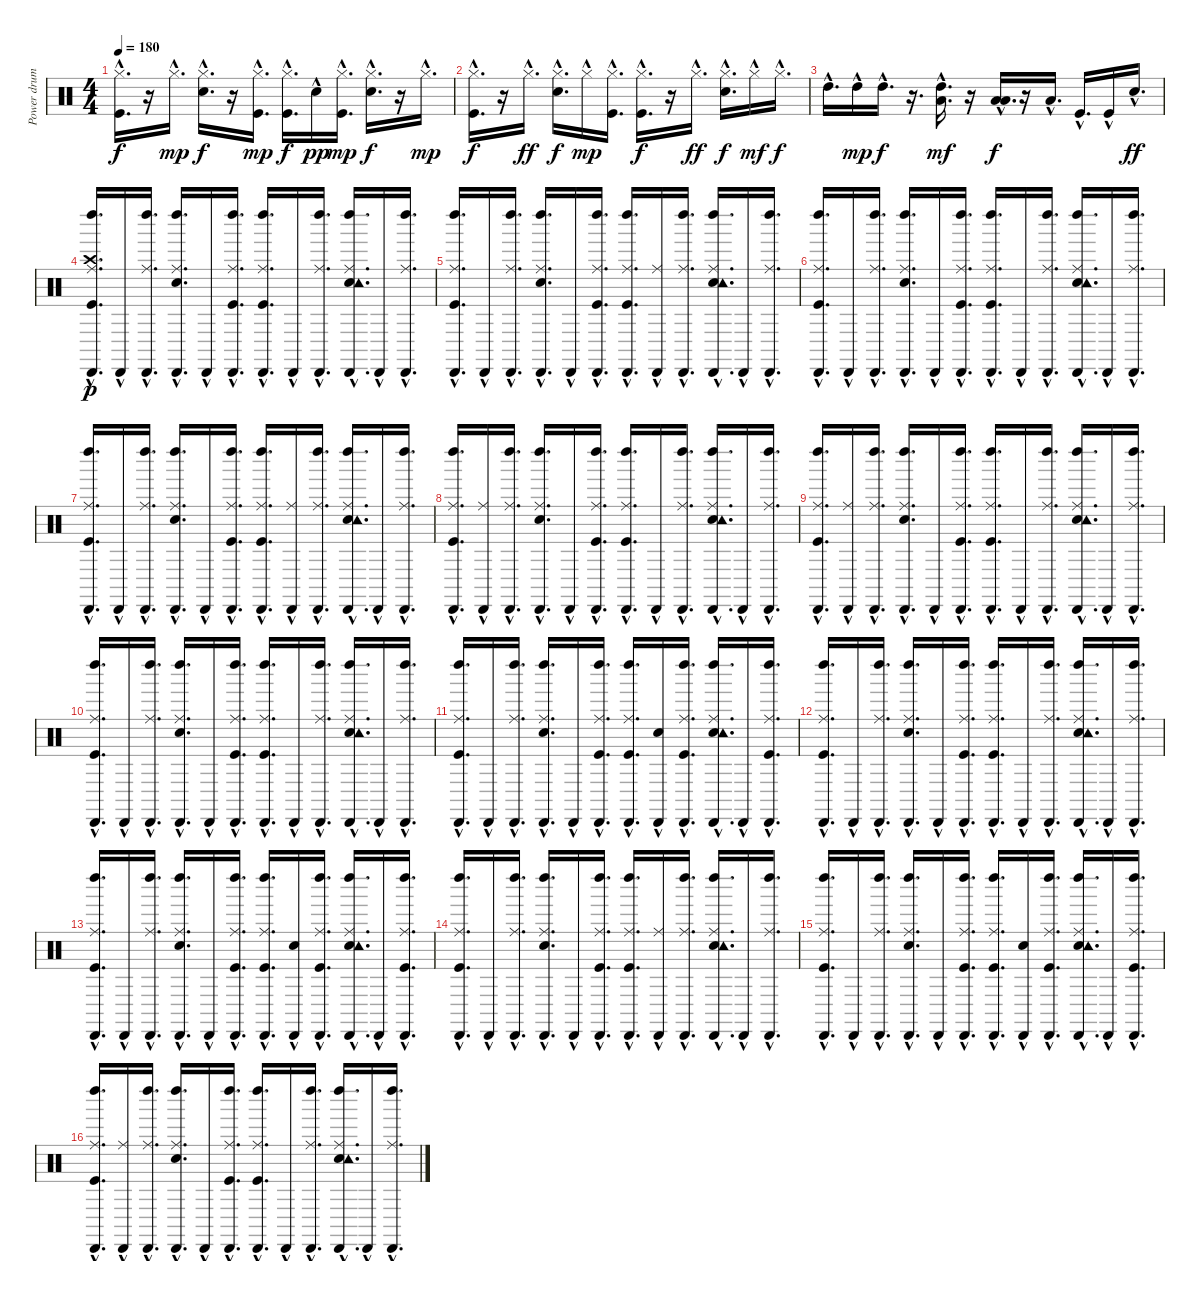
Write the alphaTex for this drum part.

\track ("Power drum" "Power drum") {instrument percussion}
\staff {score}
\articulation defaults
\ts (4 4)
\tempo 180
\clef neutral
\ks c
("Kick (hit)"{hac} "Hi-Hat (closed)"{hac}).16{d dy f} r.16 "Hi-Hat (closed)"{hac}.16{d dy mp} ("Snare (hit) 2"{hac} "Hi-Hat (closed)"{hac}).16{d dy f} r.16 ("Kick (hit)"{hac} "Hi-Hat (closed)"{hac}).16{d dy mp} ("Kick (hit)"{hac} "Hi-Hat (closed)"{hac}).16{d dy f} "Snare (hit) 2"{hac}.16{dy pp} ("Kick (hit)"{hac} "Hi-Hat (closed)"{hac}).16{d dy mp} ("Snare (hit) 2"{hac} "Hi-Hat (closed)"{hac}).16{d dy f} r.16 "Hi-Hat (closed)"{hac}.16{d dy mp} |
("Kick (hit)"{hac} "Hi-Hat (closed)"{hac}).16{d dy f} r.16 "Hi-Hat (closed)"{hac}.16{d dy ff} ("Snare (hit) 2"{hac} "Hi-Hat (closed)"{hac}).16{d dy f} "Hi-Hat (closed)"{hac}.16{dy mp} ("Kick (hit)"{hac} "Hi-Hat (closed)"{hac}).16{d} ("Kick (hit)"{hac} "Hi-Hat (closed)"{hac}).16{d dy f} r.16 "Hi-Hat (closed)"{hac}.16{d dy ff} ("Snare (hit) 2"{hac} "Hi-Hat (closed)"{hac}).16{d dy f} "Hi-Hat (closed)"{hac}.16{dy mf} "Hi-Hat (closed)"{hac}.16{d dy f} |
"High Tom (hit)"{hac}.16{d} "High Tom (hit)"{hac}.16{dy mp} "High Tom (hit)"{hac}.16{d dy f} r.16{d} ("Low Tom (hit)"{hac} "High Tom (hit)"{hac}).16{d dy mf} r.16 ("Low Floor Tom (hit)"{hac} "Low Tom (hit)"{hac}).16{d dy f} r.16 "Low Floor Tom (hit)"{hac}.16{d} "Kick (hit)"{hac}.16{d} "Kick (hit)"{hac}.16 "Snare (hit) 2"{hac}.16{d dy ff} |
("Kick (hit)"{hac} "Ride (middle)"{hac} "Crash high (hit)"{hac} "Left Maraca (hit)"{hac} "Cabasa (hit)"{hac}).16{d dy p} "Cabasa (hit)"{hac}.16 ("Ride (middle)"{hac} "Left Maraca (hit)"{hac} "Cabasa (hit)"{hac}).16{d} ("Snare (hit) 2"{hac} "Ride (middle)"{hac} "Left Maraca (hit)"{hac} "Cabasa (hit)"{hac}).16{d} "Cabasa (hit)"{hac}.16 ("Kick (hit)"{hac} "Ride (middle)"{hac} "Left Maraca (hit)"{hac} "Cabasa (hit)"{hac}).16{d} ("Kick (hit)"{hac} "Ride (middle)"{hac} "Left Maraca (hit)"{hac} "Cabasa (hit)"{hac}).16{d} "Cabasa (hit)"{hac}.16 ("Ride (middle)"{hac} "Left Maraca (hit)"{hac} "Cabasa (hit)"{hac}).16{d} ("Snare (hit) 2"{hac} "Ride (middle)"{hac} "Tambourine (hit)"{hac} "Left Maraca (hit)"{hac} "Cabasa (hit)"{hac}).16{d} "Cabasa (hit)"{hac}.16 ("Ride (middle)"{hac} "Left Maraca (hit)"{hac} "Cabasa (hit)"{hac}).16{d} |
("Kick (hit)"{hac} "Ride (middle)"{hac} "Left Maraca (hit)"{hac} "Cabasa (hit)"{hac}).16{d} "Cabasa (hit)"{hac}.16 ("Ride (middle)"{hac} "Left Maraca (hit)"{hac} "Cabasa (hit)"{hac}).16{d} ("Snare (hit) 2"{hac} "Ride (middle)"{hac} "Left Maraca (hit)"{hac} "Cabasa (hit)"{hac}).16{d} "Cabasa (hit)"{hac}.16 ("Kick (hit)"{hac} "Ride (middle)"{hac} "Left Maraca (hit)"{hac} "Cabasa (hit)"{hac}).16{d} ("Kick (hit)"{hac} "Ride (middle)"{hac} "Left Maraca (hit)"{hac} "Cabasa (hit)"{hac}).16{d} ("Ride (middle)"{hac} "Cabasa (hit)"{hac}).16 ("Ride (middle)"{hac} "Left Maraca (hit)"{hac} "Cabasa (hit)"{hac}).16{d} ("Snare (hit) 2"{hac} "Ride (middle)"{hac} "Tambourine (hit)"{hac} "Left Maraca (hit)"{hac} "Cabasa (hit)"{hac}).16{d} "Cabasa (hit)"{hac}.16 ("Ride (middle)"{hac} "Left Maraca (hit)"{hac} "Cabasa (hit)"{hac}).16{d} |
("Kick (hit)"{hac} "Ride (middle)"{hac} "Left Maraca (hit)"{hac} "Cabasa (hit)"{hac}).16{d} "Cabasa (hit)"{hac}.16 ("Ride (middle)"{hac} "Left Maraca (hit)"{hac} "Cabasa (hit)"{hac}).16{d} ("Snare (hit) 2"{hac} "Ride (middle)"{hac} "Left Maraca (hit)"{hac} "Cabasa (hit)"{hac}).16{d} "Cabasa (hit)"{hac}.16 ("Kick (hit)"{hac} "Ride (middle)"{hac} "Left Maraca (hit)"{hac} "Cabasa (hit)"{hac}).16{d} ("Kick (hit)"{hac} "Ride (middle)"{hac} "Left Maraca (hit)"{hac} "Cabasa (hit)"{hac}).16{d} "Cabasa (hit)"{hac}.16 ("Ride (middle)"{hac} "Left Maraca (hit)"{hac} "Cabasa (hit)"{hac}).16{d} ("Snare (hit) 2"{hac} "Ride (middle)"{hac} "Tambourine (hit)"{hac} "Left Maraca (hit)"{hac} "Cabasa (hit)"{hac}).16{d} "Cabasa (hit)"{hac}.16 ("Ride (middle)"{hac} "Left Maraca (hit)"{hac} "Cabasa (hit)"{hac}).16{d} |
("Kick (hit)"{hac} "Ride (middle)"{hac} "Left Maraca (hit)"{hac} "Cabasa (hit)"{hac}).16{d} "Cabasa (hit)"{hac}.16 ("Ride (middle)"{hac} "Left Maraca (hit)"{hac} "Cabasa (hit)"{hac}).16{d} ("Snare (hit) 2"{hac} "Ride (middle)"{hac} "Left Maraca (hit)"{hac} "Cabasa (hit)"{hac}).16{d} "Cabasa (hit)"{hac}.16 ("Kick (hit)"{hac} "Ride (middle)"{hac} "Left Maraca (hit)"{hac} "Cabasa (hit)"{hac}).16{d} ("Kick (hit)"{hac} "Ride (middle)"{hac} "Left Maraca (hit)"{hac} "Cabasa (hit)"{hac}).16{d} ("Ride (middle)"{hac} "Cabasa (hit)"{hac}).16 ("Ride (middle)"{hac} "Left Maraca (hit)"{hac} "Cabasa (hit)"{hac}).16{d} ("Snare (hit) 2"{hac} "Ride (middle)"{hac} "Tambourine (hit)"{hac} "Left Maraca (hit)"{hac} "Cabasa (hit)"{hac}).16{d} "Cabasa (hit)"{hac}.16 ("Ride (middle)"{hac} "Left Maraca (hit)"{hac} "Cabasa (hit)"{hac}).16{d} |
("Kick (hit)"{hac} "Ride (middle)"{hac} "Left Maraca (hit)"{hac} "Cabasa (hit)"{hac}).16{d} ("Ride (middle)"{hac} "Cabasa (hit)"{hac}).16 ("Ride (middle)"{hac} "Left Maraca (hit)"{hac} "Cabasa (hit)"{hac}).16{d} ("Snare (hit) 2"{hac} "Ride (middle)"{hac} "Left Maraca (hit)"{hac} "Cabasa (hit)"{hac}).16{d} "Cabasa (hit)"{hac}.16 ("Kick (hit)"{hac} "Ride (middle)"{hac} "Left Maraca (hit)"{hac} "Cabasa (hit)"{hac}).16{d} ("Kick (hit)"{hac} "Ride (middle)"{hac} "Left Maraca (hit)"{hac} "Cabasa (hit)"{hac}).16{d} "Cabasa (hit)"{hac}.16 ("Ride (middle)"{hac} "Left Maraca (hit)"{hac} "Cabasa (hit)"{hac}).16{d} ("Snare (hit) 2"{hac} "Ride (middle)"{hac} "Tambourine (hit)"{hac} "Left Maraca (hit)"{hac} "Cabasa (hit)"{hac}).16{d} "Cabasa (hit)"{hac}.16 ("Ride (middle)"{hac} "Left Maraca (hit)"{hac} "Cabasa (hit)"{hac}).16{d} |
("Kick (hit)"{hac} "Ride (middle)"{hac} "Left Maraca (hit)"{hac} "Cabasa (hit)"{hac}).16{d} ("Ride (middle)"{hac} "Cabasa (hit)"{hac}).16 ("Ride (middle)"{hac} "Left Maraca (hit)"{hac} "Cabasa (hit)"{hac}).16{d} ("Snare (hit) 2"{hac} "Ride (middle)"{hac} "Left Maraca (hit)"{hac} "Cabasa (hit)"{hac}).16{d} "Cabasa (hit)"{hac}.16 ("Kick (hit)"{hac} "Ride (middle)"{hac} "Left Maraca (hit)"{hac} "Cabasa (hit)"{hac}).16{d} ("Kick (hit)"{hac} "Ride (middle)"{hac} "Left Maraca (hit)"{hac} "Cabasa (hit)"{hac}).16{d} "Cabasa (hit)"{hac}.16 ("Ride (middle)"{hac} "Left Maraca (hit)"{hac} "Cabasa (hit)"{hac}).16{d} ("Snare (hit) 2"{hac} "Ride (middle)"{hac} "Tambourine (hit)"{hac} "Left Maraca (hit)"{hac} "Cabasa (hit)"{hac}).16{d} "Cabasa (hit)"{hac}.16 ("Ride (middle)"{hac} "Left Maraca (hit)"{hac} "Cabasa (hit)"{hac}).16{d} |
("Kick (hit)"{hac} "Ride (middle)"{hac} "Left Maraca (hit)"{hac} "Cabasa (hit)"{hac}).16{d} "Cabasa (hit)"{hac}.16 ("Ride (middle)"{hac} "Left Maraca (hit)"{hac} "Cabasa (hit)"{hac}).16{d} ("Snare (hit) 2"{hac} "Ride (middle)"{hac} "Left Maraca (hit)"{hac} "Cabasa (hit)"{hac}).16{d} "Cabasa (hit)"{hac}.16 ("Kick (hit)"{hac} "Ride (middle)"{hac} "Left Maraca (hit)"{hac} "Cabasa (hit)"{hac}).16{d} ("Kick (hit)"{hac} "Ride (middle)"{hac} "Left Maraca (hit)"{hac} "Cabasa (hit)"{hac}).16{d} "Cabasa (hit)"{hac}.16 ("Ride (middle)"{hac} "Left Maraca (hit)"{hac} "Cabasa (hit)"{hac}).16{d} ("Snare (hit) 2"{hac} "Ride (middle)"{hac} "Tambourine (hit)"{hac} "Left Maraca (hit)"{hac} "Cabasa (hit)"{hac}).16{d} "Cabasa (hit)"{hac}.16 ("Ride (middle)"{hac} "Left Maraca (hit)"{hac} "Cabasa (hit)"{hac}).16{d} |
("Kick (hit)"{hac} "Ride (middle)"{hac} "Left Maraca (hit)"{hac} "Cabasa (hit)"{hac}).16{d} "Cabasa (hit)"{hac}.16 ("Ride (middle)"{hac} "Left Maraca (hit)"{hac} "Cabasa (hit)"{hac}).16{d} ("Snare (hit) 2"{hac} "Ride (middle)"{hac} "Left Maraca (hit)"{hac} "Cabasa (hit)"{hac}).16{d} "Cabasa (hit)"{hac}.16 ("Kick (hit)"{hac} "Ride (middle)"{hac} "Left Maraca (hit)"{hac} "Cabasa (hit)"{hac}).16{d} ("Kick (hit)"{hac} "Ride (middle)"{hac} "Left Maraca (hit)"{hac} "Cabasa (hit)"{hac}).16{d} ("Snare (hit) 2"{hac} "Cabasa (hit)"{hac}).16 ("Kick (hit)"{hac} "Ride (middle)"{hac} "Left Maraca (hit)"{hac} "Cabasa (hit)"{hac}).16{d} ("Snare (hit) 2"{hac} "Ride (middle)"{hac} "Tambourine (hit)"{hac} "Left Maraca (hit)"{hac} "Cabasa (hit)"{hac}).16{d} "Cabasa (hit)"{hac}.16 ("Kick (hit)"{hac} "Ride (middle)"{hac} "Left Maraca (hit)"{hac} "Cabasa (hit)"{hac}).16{d} |
("Kick (hit)"{hac} "Ride (middle)"{hac} "Left Maraca (hit)"{hac} "Cabasa (hit)"{hac}).16{d} "Cabasa (hit)"{hac}.16 ("Ride (middle)"{hac} "Left Maraca (hit)"{hac} "Cabasa (hit)"{hac}).16{d} ("Snare (hit) 2"{hac} "Ride (middle)"{hac} "Left Maraca (hit)"{hac} "Cabasa (hit)"{hac}).16{d} "Cabasa (hit)"{hac}.16 ("Kick (hit)"{hac} "Ride (middle)"{hac} "Left Maraca (hit)"{hac} "Cabasa (hit)"{hac}).16{d} ("Kick (hit)"{hac} "Ride (middle)"{hac} "Left Maraca (hit)"{hac} "Cabasa (hit)"{hac}).16{d} "Cabasa (hit)"{hac}.16 ("Ride (middle)"{hac} "Left Maraca (hit)"{hac} "Cabasa (hit)"{hac}).16{d} ("Snare (hit) 2"{hac} "Ride (middle)"{hac} "Tambourine (hit)"{hac} "Left Maraca (hit)"{hac} "Cabasa (hit)"{hac}).16{d} "Cabasa (hit)"{hac}.16 ("Ride (middle)"{hac} "Left Maraca (hit)"{hac} "Cabasa (hit)"{hac}).16{d} |
("Kick (hit)"{hac} "Ride (middle)"{hac} "Left Maraca (hit)"{hac} "Cabasa (hit)"{hac}).16{d} "Cabasa (hit)"{hac}.16 ("Ride (middle)"{hac} "Left Maraca (hit)"{hac} "Cabasa (hit)"{hac}).16{d} ("Snare (hit) 2"{hac} "Ride (middle)"{hac} "Left Maraca (hit)"{hac} "Cabasa (hit)"{hac}).16{d} "Cabasa (hit)"{hac}.16 ("Kick (hit)"{hac} "Ride (middle)"{hac} "Left Maraca (hit)"{hac} "Cabasa (hit)"{hac}).16{d} ("Kick (hit)"{hac} "Ride (middle)"{hac} "Left Maraca (hit)"{hac} "Cabasa (hit)"{hac}).16{d} ("Snare (hit) 2"{hac} "Cabasa (hit)"{hac}).16 ("Kick (hit)"{hac} "Ride (middle)"{hac} "Left Maraca (hit)"{hac} "Cabasa (hit)"{hac}).16{d} ("Snare (hit) 2"{hac} "Ride (middle)"{hac} "Tambourine (hit)"{hac} "Left Maraca (hit)"{hac} "Cabasa (hit)"{hac}).16{d} "Cabasa (hit)"{hac}.16 ("Kick (hit)"{hac} "Ride (middle)"{hac} "Left Maraca (hit)"{hac} "Cabasa (hit)"{hac}).16{d} |
("Kick (hit)"{hac} "Ride (middle)"{hac} "Left Maraca (hit)"{hac} "Cabasa (hit)"{hac}).16{d} "Cabasa (hit)"{hac}.16 ("Ride (middle)"{hac} "Left Maraca (hit)"{hac} "Cabasa (hit)"{hac}).16{d} ("Snare (hit) 2"{hac} "Ride (middle)"{hac} "Left Maraca (hit)"{hac} "Cabasa (hit)"{hac}).16{d} "Cabasa (hit)"{hac}.16 ("Kick (hit)"{hac} "Ride (middle)"{hac} "Left Maraca (hit)"{hac} "Cabasa (hit)"{hac}).16{d} ("Kick (hit)"{hac} "Ride (middle)"{hac} "Left Maraca (hit)"{hac} "Cabasa (hit)"{hac}).16{d} ("Ride (middle)"{hac} "Cabasa (hit)"{hac}).16 ("Ride (middle)"{hac} "Left Maraca (hit)"{hac} "Cabasa (hit)"{hac}).16{d} ("Snare (hit) 2"{hac} "Ride (middle)"{hac} "Tambourine (hit)"{hac} "Left Maraca (hit)"{hac} "Cabasa (hit)"{hac}).16{d} "Cabasa (hit)"{hac}.16 ("Ride (middle)"{hac} "Left Maraca (hit)"{hac} "Cabasa (hit)"{hac}).16{d} |
("Kick (hit)"{hac} "Ride (middle)"{hac} "Left Maraca (hit)"{hac} "Cabasa (hit)"{hac}).16{d} "Cabasa (hit)"{hac}.16 ("Ride (middle)"{hac} "Left Maraca (hit)"{hac} "Cabasa (hit)"{hac}).16{d} ("Snare (hit) 2"{hac} "Ride (middle)"{hac} "Left Maraca (hit)"{hac} "Cabasa (hit)"{hac}).16{d} "Cabasa (hit)"{hac}.16 ("Kick (hit)"{hac} "Ride (middle)"{hac} "Left Maraca (hit)"{hac} "Cabasa (hit)"{hac}).16{d} ("Kick (hit)"{hac} "Ride (middle)"{hac} "Left Maraca (hit)"{hac} "Cabasa (hit)"{hac}).16{d} ("Snare (hit) 2"{hac} "Cabasa (hit)"{hac}).16 ("Kick (hit)"{hac} "Ride (middle)"{hac} "Left Maraca (hit)"{hac} "Cabasa (hit)"{hac}).16{d} ("Snare (hit) 2"{hac} "Ride (middle)"{hac} "Tambourine (hit)"{hac} "Left Maraca (hit)"{hac} "Cabasa (hit)"{hac}).16{d} "Cabasa (hit)"{hac}.16 ("Kick (hit)"{hac} "Ride (middle)"{hac} "Left Maraca (hit)"{hac} "Cabasa (hit)"{hac}).16{d} |
("Kick (hit)"{hac} "Ride (middle)"{hac} "Left Maraca (hit)"{hac} "Cabasa (hit)"{hac}).16{d} ("Ride (middle)"{hac} "Cabasa (hit)"{hac}).16 ("Ride (middle)"{hac} "Left Maraca (hit)"{hac} "Cabasa (hit)"{hac}).16{d} ("Snare (hit) 2"{hac} "Ride (middle)"{hac} "Left Maraca (hit)"{hac} "Cabasa (hit)"{hac}).16{d} "Cabasa (hit)"{hac}.16 ("Kick (hit)"{hac} "Ride (middle)"{hac} "Left Maraca (hit)"{hac} "Cabasa (hit)"{hac}).16{d} ("Kick (hit)"{hac} "Ride (middle)"{hac} "Left Maraca (hit)"{hac} "Cabasa (hit)"{hac}).16{d} "Cabasa (hit)"{hac}.16 ("Ride (middle)"{hac} "Left Maraca (hit)"{hac} "Cabasa (hit)"{hac}).16{d} ("Snare (hit) 2"{hac} "Ride (middle)"{hac} "Tambourine (hit)"{hac} "Left Maraca (hit)"{hac} "Cabasa (hit)"{hac}).16{d} "Cabasa (hit)"{hac}.16 ("Ride (middle)"{hac} "Left Maraca (hit)"{hac} "Cabasa (hit)"{hac}).16{d}
